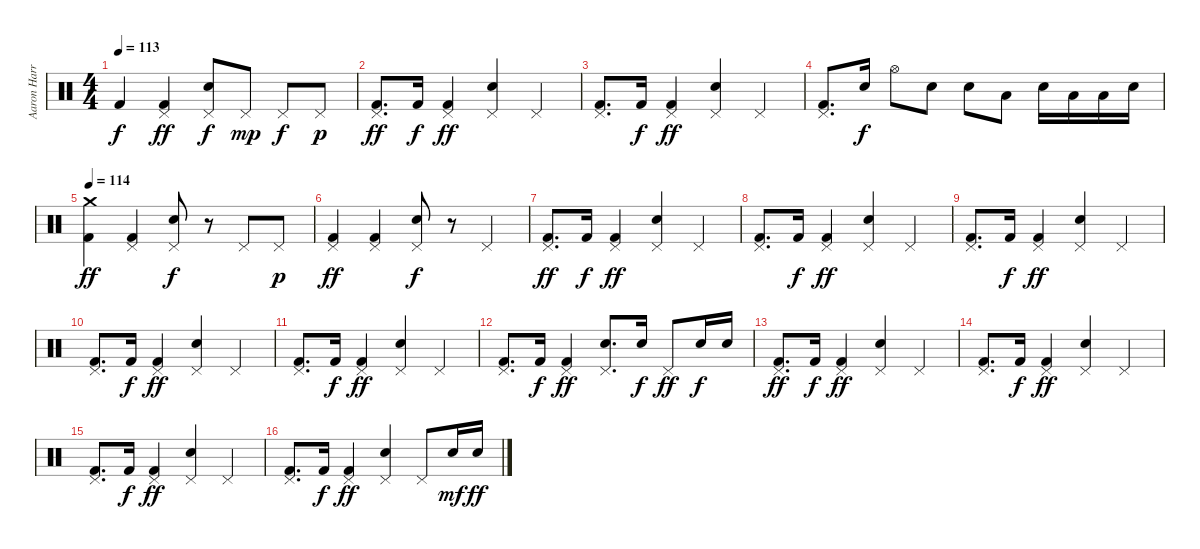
\track ("Aaron Harris" "Aaron Harr") {instrument percussion}
\staff {score}
\articulation defaults
\ts (4 4)
\tempo 113
\clef neutral
\ks c "Kick (hit) 2".4{dy f}
("Pedal Hi-Hat (hit)" "Kick (hit) 2").4{dy ff} ("Pedal Hi-Hat (hit)" "Electric Snare (hit)").8{dy f} "Pedal Hi-Hat (hit)".8{dy mp} "Pedal Hi-Hat (hit)".8{dy f} "Pedal Hi-Hat (hit)".8{dy p} |
("Pedal Hi-Hat (hit)" "Kick (hit) 2").8{d dy ff} "Kick (hit) 2".16{dy f} ("Pedal Hi-Hat (hit)" "Kick (hit) 2").4{dy ff} ("Pedal Hi-Hat (hit)" "Electric Snare (hit)").4 "Pedal Hi-Hat (hit)".4 |
("Pedal Hi-Hat (hit)" "Kick (hit) 2").8{d} "Kick (hit) 2".16{dy f} ("Pedal Hi-Hat (hit)" "Kick (hit) 2").4{dy ff} ("Pedal Hi-Hat (hit)" "Electric Snare (hit)").4 "Pedal Hi-Hat (hit)".4 |
("Pedal Hi-Hat (hit)" "Kick (hit) 2").8{d} "Electric Snare (hit)".16{dy f} "Hi-Hat (open)".8 "Electric Snare (hit)".8 "Electric Snare (hit)".8 "Low Tom (hit)".8 "Electric Snare (hit)".16 "Low Tom (hit)".16 "Low Tom (hit)".16 "Electric Snare (hit)".16 |
\tempo 114
("Crash medium (hit)" "Kick (hit) 2").4{dy ff} ("Pedal Hi-Hat (hit)" "Kick (hit) 2").4 ("Pedal Hi-Hat (hit)" "Electric Snare (hit)").8{dy f} r.8 "Pedal Hi-Hat (hit)".8 "Pedal Hi-Hat (hit)".8{dy p} |
("Pedal Hi-Hat (hit)" "Kick (hit) 2").4{dy ff} ("Pedal Hi-Hat (hit)" "Kick (hit) 2").4 ("Pedal Hi-Hat (hit)" "Electric Snare (hit)").8{dy f} r.8 "Pedal Hi-Hat (hit)".4 |
("Pedal Hi-Hat (hit)" "Kick (hit) 2").8{d dy ff} "Kick (hit) 2".16{dy f} ("Pedal Hi-Hat (hit)" "Kick (hit) 2").4{dy ff} ("Pedal Hi-Hat (hit)" "Electric Snare (hit)").4 "Pedal Hi-Hat (hit)".4 |
("Pedal Hi-Hat (hit)" "Kick (hit) 2").8{d} "Kick (hit) 2".16{dy f} ("Pedal Hi-Hat (hit)" "Kick (hit) 2").4{dy ff} ("Pedal Hi-Hat (hit)" "Electric Snare (hit)").4 "Pedal Hi-Hat (hit)".4 |
("Pedal Hi-Hat (hit)" "Kick (hit) 2").8{d} "Kick (hit) 2".16{dy f} ("Pedal Hi-Hat (hit)" "Kick (hit) 2").4{dy ff} ("Pedal Hi-Hat (hit)" "Electric Snare (hit)").4 "Pedal Hi-Hat (hit)".4 |
("Pedal Hi-Hat (hit)" "Kick (hit) 2").8{d} "Kick (hit) 2".16{dy f} ("Pedal Hi-Hat (hit)" "Kick (hit) 2").4{dy ff} ("Pedal Hi-Hat (hit)" "Electric Snare (hit)").4 "Pedal Hi-Hat (hit)".4 |
("Pedal Hi-Hat (hit)" "Kick (hit) 2").8{d} "Kick (hit) 2".16{dy f} ("Pedal Hi-Hat (hit)" "Kick (hit) 2").4{dy ff} ("Pedal Hi-Hat (hit)" "Electric Snare (hit)").4 "Pedal Hi-Hat (hit)".4 |
("Pedal Hi-Hat (hit)" "Kick (hit) 2").8{d} "Kick (hit) 2".16{dy f} ("Pedal Hi-Hat (hit)" "Kick (hit) 2").4{dy ff} ("Pedal Hi-Hat (hit)" "Electric Snare (hit)").8{d} "Electric Snare (hit)".16{dy f} "Pedal Hi-Hat (hit)".8{dy ff} "Electric Snare (hit)".16{dy f} "Electric Snare (hit)".16 |
("Pedal Hi-Hat (hit)" "Kick (hit) 2").8{d dy ff} "Kick (hit) 2".16{dy f} ("Pedal Hi-Hat (hit)" "Kick (hit) 2").4{dy ff} ("Pedal Hi-Hat (hit)" "Electric Snare (hit)").4 "Pedal Hi-Hat (hit)".4 |
("Pedal Hi-Hat (hit)" "Kick (hit) 2").8{d} "Kick (hit) 2".16{dy f} ("Pedal Hi-Hat (hit)" "Kick (hit) 2").4{dy ff} ("Pedal Hi-Hat (hit)" "Electric Snare (hit)").4 "Pedal Hi-Hat (hit)".4 |
("Pedal Hi-Hat (hit)" "Kick (hit) 2").8{d} "Kick (hit) 2".16{dy f} ("Pedal Hi-Hat (hit)" "Kick (hit) 2").4{dy ff} ("Pedal Hi-Hat (hit)" "Electric Snare (hit)").4 "Pedal Hi-Hat (hit)".4 |
("Pedal Hi-Hat (hit)" "Kick (hit) 2").8{d} "Kick (hit) 2".16{dy f} ("Pedal Hi-Hat (hit)" "Kick (hit) 2").4{dy ff} ("Pedal Hi-Hat (hit)" "Electric Snare (hit)").4 "Pedal Hi-Hat (hit)".8 "Electric Snare (hit)".16{dy mf} "Electric Snare (hit)".16{dy ff}
